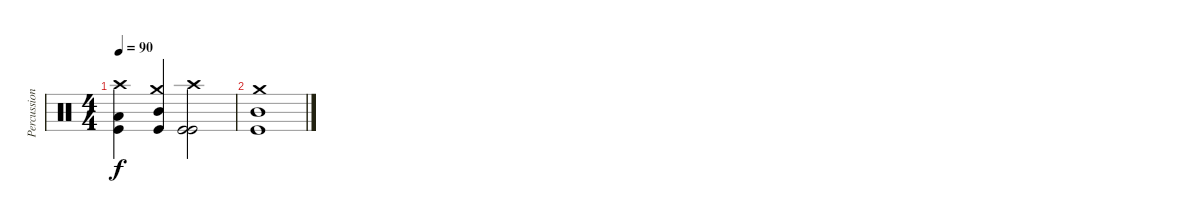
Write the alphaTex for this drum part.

\track ("Percussion" "Percussion") {instrument percussion}
\staff {score}
\articulation defaults
\ts (4 4)
\tempo 90
\clef neutral
\ks c
("Crash high (hit)" "Low Tom (hit)" "Kick (hit)").4{dy f} ("Crash medium (hit)" "Mid Tom (hit)" "Kick (hit)").4 ("Crash high (hit)" "Kick (hit)" "Kick (hit)").2 |
("Crash medium (hit)" "Mid Tom (hit)" "Kick (hit)").1
